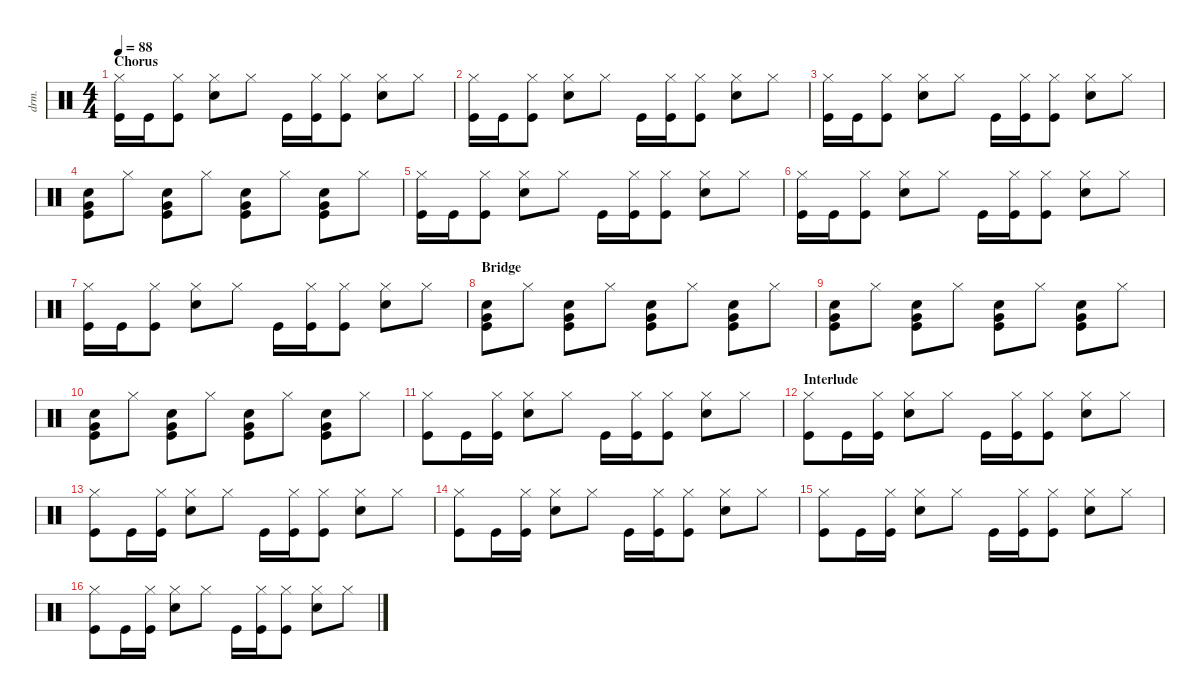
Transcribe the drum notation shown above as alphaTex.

\defaultSystemsLayout 4
\hideDynamics
\bracketExtendMode nobrackets
\otherSystemsTrackNameOrientation horizontal
\track ("Drums" "drm.") {instrument percussion}
\staff {score}
\articulation defaults
\ts (4 4)
\section ("" "Chorus")
\tempo 88
\clef neutral
\ks c
("Hi-Hat (closed)" "Kick (hit)").16{dy f} "Kick (hit)".16 ("Hi-Hat (closed)" "Kick (hit)").8 ("Hi-Hat (closed)" "Snare (hit) 2").8 "Hi-Hat (closed)".8 "Kick (hit)".16 ("Hi-Hat (closed)" "Kick (hit)").16 ("Hi-Hat (closed)" "Kick (hit)").8 ("Hi-Hat (closed)" "Snare (hit) 2").8 "Hi-Hat (closed)".8 |
("Hi-Hat (closed)" "Kick (hit)").16 "Kick (hit)".16 ("Hi-Hat (closed)" "Kick (hit)").8 ("Hi-Hat (closed)" "Snare (hit) 2").8 "Hi-Hat (closed)".8 "Kick (hit)".16 ("Hi-Hat (closed)" "Kick (hit)").16 ("Hi-Hat (closed)" "Kick (hit)").8 ("Hi-Hat (closed)" "Snare (hit) 2").8 "Hi-Hat (closed)".8 |
("Hi-Hat (closed)" "Kick (hit)").16 "Kick (hit)".16 ("Hi-Hat (closed)" "Kick (hit)").8 ("Hi-Hat (closed)" "Snare (hit) 2").8 "Hi-Hat (closed)".8 "Kick (hit)".16 ("Hi-Hat (closed)" "Kick (hit)").16 ("Hi-Hat (closed)" "Kick (hit)").8 ("Hi-Hat (closed)" "Snare (hit) 2").8 "Hi-Hat (closed)".8 |
("Very Low Tom (hit)" "Snare (hit) 2" "Kick (hit)").8 "Hi-Hat (closed)".8 ("Snare (hit) 2" "Kick (hit)" "Very Low Tom (hit)").8 "Hi-Hat (closed)".8 ("Snare (hit) 2" "Kick (hit)" "Very Low Tom (hit)").8 "Hi-Hat (closed)".8 ("Snare (hit) 2" "Very Low Tom (hit)" "Kick (hit)").8 "Hi-Hat (closed)".8 |
("Hi-Hat (closed)" "Kick (hit)").16 "Kick (hit)".16 ("Hi-Hat (closed)" "Kick (hit)").8 ("Hi-Hat (closed)" "Snare (hit) 2").8 "Hi-Hat (closed)".8 "Kick (hit)".16 ("Hi-Hat (closed)" "Kick (hit)").16 ("Hi-Hat (closed)" "Kick (hit)").8 ("Hi-Hat (closed)" "Snare (hit) 2").8 "Hi-Hat (closed)".8 |
("Hi-Hat (closed)" "Kick (hit)").16 "Kick (hit)".16 ("Hi-Hat (closed)" "Kick (hit)").8 ("Hi-Hat (closed)" "Snare (hit) 2").8 "Hi-Hat (closed)".8 "Kick (hit)".16 ("Hi-Hat (closed)" "Kick (hit)").16 ("Hi-Hat (closed)" "Kick (hit)").8 ("Hi-Hat (closed)" "Snare (hit) 2").8 "Hi-Hat (closed)".8 |
("Hi-Hat (closed)" "Kick (hit)").16 "Kick (hit)".16 ("Hi-Hat (closed)" "Kick (hit)").8 ("Hi-Hat (closed)" "Snare (hit) 2").8 "Hi-Hat (closed)".8 "Kick (hit)".16 ("Hi-Hat (closed)" "Kick (hit)").16 ("Hi-Hat (closed)" "Kick (hit)").8 ("Hi-Hat (closed)" "Snare (hit) 2").8 "Hi-Hat (closed)".8 |
\section ("" "Bridge")
("Very Low Tom (hit)" "Snare (hit) 2" "Kick (hit)").8 "Hi-Hat (closed)".8 ("Snare (hit) 2" "Kick (hit)" "Very Low Tom (hit)").8 "Hi-Hat (closed)".8 ("Snare (hit) 2" "Kick (hit)" "Very Low Tom (hit)").8 "Hi-Hat (closed)".8 ("Snare (hit) 2" "Very Low Tom (hit)" "Kick (hit)").8 "Hi-Hat (closed)".8 |
("Very Low Tom (hit)" "Snare (hit) 2" "Kick (hit)").8 "Hi-Hat (closed)".8 ("Snare (hit) 2" "Kick (hit)" "Very Low Tom (hit)").8 "Hi-Hat (closed)".8 ("Snare (hit) 2" "Kick (hit)" "Very Low Tom (hit)").8 "Hi-Hat (closed)".8 ("Snare (hit) 2" "Very Low Tom (hit)" "Kick (hit)").8 "Hi-Hat (closed)".8 |
("Very Low Tom (hit)" "Snare (hit) 2" "Kick (hit)").8 "Hi-Hat (closed)".8 ("Snare (hit) 2" "Kick (hit)" "Very Low Tom (hit)").8 "Hi-Hat (closed)".8 ("Snare (hit) 2" "Kick (hit)" "Very Low Tom (hit)").8 "Hi-Hat (closed)".8 ("Snare (hit) 2" "Very Low Tom (hit)" "Kick (hit)").8 "Hi-Hat (closed)".8 |
("Hi-Hat (closed)" "Kick (hit)").8 "Kick (hit)".16 ("Hi-Hat (closed)" "Kick (hit)").16 ("Hi-Hat (closed)" "Snare (hit) 2").8 "Hi-Hat (closed)".8 "Kick (hit)".16 ("Hi-Hat (closed)" "Kick (hit)").16 ("Hi-Hat (closed)" "Kick (hit)").8 ("Hi-Hat (closed)" "Snare (hit) 2").8 "Hi-Hat (closed)".8 |
\section ("" "Interlude")
("Hi-Hat (closed)" "Kick (hit)").8 "Kick (hit)".16 ("Hi-Hat (closed)" "Kick (hit)").16 ("Hi-Hat (closed)" "Snare (hit) 2").8 "Hi-Hat (closed)".8 "Kick (hit)".16 ("Hi-Hat (closed)" "Kick (hit)").16 ("Hi-Hat (closed)" "Kick (hit)").8 ("Hi-Hat (closed)" "Snare (hit) 2").8 "Hi-Hat (closed)".8 |
("Hi-Hat (closed)" "Kick (hit)").8 "Kick (hit)".16 ("Hi-Hat (closed)" "Kick (hit)").16 ("Hi-Hat (closed)" "Snare (hit) 2").8 "Hi-Hat (closed)".8 "Kick (hit)".16 ("Hi-Hat (closed)" "Kick (hit)").16 ("Hi-Hat (closed)" "Kick (hit)").8 ("Hi-Hat (closed)" "Snare (hit) 2").8 "Hi-Hat (closed)".8 |
("Hi-Hat (closed)" "Kick (hit)").8 "Kick (hit)".16 ("Hi-Hat (closed)" "Kick (hit)").16 ("Hi-Hat (closed)" "Snare (hit) 2").8 "Hi-Hat (closed)".8 "Kick (hit)".16 ("Hi-Hat (closed)" "Kick (hit)").16 ("Hi-Hat (closed)" "Kick (hit)").8 ("Hi-Hat (closed)" "Snare (hit) 2").8 "Hi-Hat (closed)".8 |
("Hi-Hat (closed)" "Kick (hit)").8 "Kick (hit)".16 ("Hi-Hat (closed)" "Kick (hit)").16 ("Hi-Hat (closed)" "Snare (hit) 2").8 "Hi-Hat (closed)".8 "Kick (hit)".16 ("Hi-Hat (closed)" "Kick (hit)").16 ("Hi-Hat (closed)" "Kick (hit)").8 ("Hi-Hat (closed)" "Snare (hit) 2").8 "Hi-Hat (closed)".8 |
("Hi-Hat (closed)" "Kick (hit)").8 "Kick (hit)".16 ("Hi-Hat (closed)" "Kick (hit)").16 ("Hi-Hat (closed)" "Snare (hit) 2").8 "Hi-Hat (closed)".8 "Kick (hit)".16 ("Hi-Hat (closed)" "Kick (hit)").16 ("Hi-Hat (closed)" "Kick (hit)").8 ("Hi-Hat (closed)" "Snare (hit) 2").8 "Hi-Hat (closed)".8
